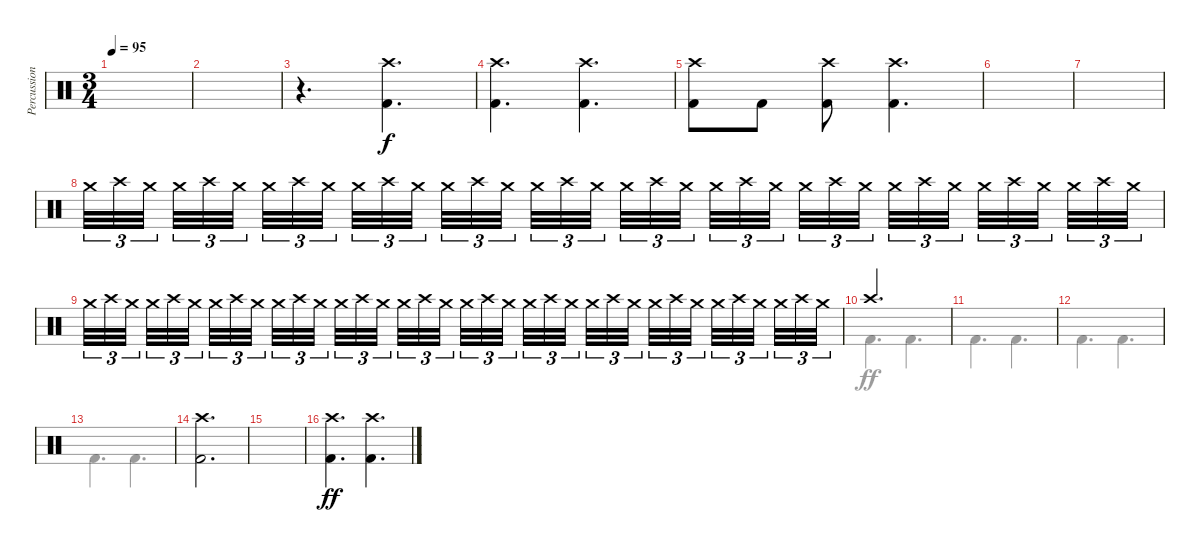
\track ("Percussion" "Percussion") {instrument percussion}
\staff {score}
\articulation defaults
\voice
\ts (3 4)
\tempo 95
\clef neutral
\ks c
|
|
r.4{d} ("Crash high (hit)" "Kick (hit) 2").4{d} |
("Crash high (hit)" "Kick (hit) 2").4{d} ("Crash high (hit)" "Kick (hit) 2").4{d} |
("Crash high (hit)" "Kick (hit) 2").8 "Kick (hit) 2".8 ("Crash high (hit)" "Kick (hit) 2").8 ("Crash high (hit)" "Kick (hit) 2").4{d} |
|
|
"Crash medium (hit)".32{tu (3 2) volume 0} "Crash high (hit)".32{tu (3 2) volume 13} "Crash medium (hit)".32{tu (3 2) beam splitsecondary} "Crash medium (hit)".32{tu (3 2)} "Crash high (hit)".32{tu (3 2)} "Crash medium (hit)".32{tu (3 2) beam splitsecondary} "Crash medium (hit)".32{tu (3 2)} "Crash high (hit)".32{tu (3 2)} "Crash medium (hit)".32{tu (3 2) beam splitsecondary} "Crash medium (hit)".32{tu (3 2)} "Crash high (hit)".32{tu (3 2)} "Crash medium (hit)".32{tu (3 2)} "Crash medium (hit)".32{tu (3 2)} "Crash high (hit)".32{tu (3 2)} "Crash medium (hit)".32{tu (3 2) beam splitsecondary} "Crash medium (hit)".32{tu (3 2)} "Crash high (hit)".32{tu (3 2)} "Crash medium (hit)".32{tu (3 2) beam splitsecondary} "Crash medium (hit)".32{tu (3 2)} "Crash high (hit)".32{tu (3 2)} "Crash medium (hit)".32{tu (3 2) beam splitsecondary} "Crash medium (hit)".32{tu (3 2)} "Crash high (hit)".32{tu (3 2)} "Crash medium (hit)".32{tu (3 2)} "Crash medium (hit)".32{tu (3 2)} "Crash high (hit)".32{tu (3 2)} "Crash medium (hit)".32{tu (3 2) beam splitsecondary} "Crash medium (hit)".32{tu (3 2)} "Crash high (hit)".32{tu (3 2)} "Crash medium (hit)".32{tu (3 2) beam splitsecondary} "Crash medium (hit)".32{tu (3 2)} "Crash high (hit)".32{tu (3 2)} "Crash medium (hit)".32{tu (3 2) beam splitsecondary} "Crash medium (hit)".32{tu (3 2)} "Crash high (hit)".32{tu (3 2)} "Crash medium (hit)".32{tu (3 2)} |
"Crash medium (hit)".32{tu (3 2)} "Crash high (hit)".32{tu (3 2)} "Crash medium (hit)".32{tu (3 2) beam splitsecondary} "Crash medium (hit)".32{tu (3 2)} "Crash high (hit)".32{tu (3 2)} "Crash medium (hit)".32{tu (3 2) beam splitsecondary} "Crash medium (hit)".32{tu (3 2)} "Crash high (hit)".32{tu (3 2)} "Crash medium (hit)".32{tu (3 2) beam splitsecondary} "Crash medium (hit)".32{tu (3 2)} "Crash high (hit)".32{tu (3 2)} "Crash medium (hit)".32{tu (3 2)} "Crash medium (hit)".32{tu (3 2)} "Crash high (hit)".32{tu (3 2)} "Crash medium (hit)".32{tu (3 2) beam splitsecondary} "Crash medium (hit)".32{tu (3 2)} "Crash high (hit)".32{tu (3 2)} "Crash medium (hit)".32{tu (3 2) beam splitsecondary} "Crash medium (hit)".32{tu (3 2)} "Crash high (hit)".32{tu (3 2)} "Crash medium (hit)".32{tu (3 2) beam splitsecondary} "Crash medium (hit)".32{tu (3 2)} "Crash high (hit)".32{tu (3 2)} "Crash medium (hit)".32{tu (3 2)} "Crash medium (hit)".32{tu (3 2)} "Crash high (hit)".32{tu (3 2)} "Crash medium (hit)".32{tu (3 2) beam splitsecondary} "Crash medium (hit)".32{tu (3 2)} "Crash high (hit)".32{tu (3 2)} "Crash medium (hit)".32{tu (3 2) beam splitsecondary} "Crash medium (hit)".32{tu (3 2)} "Crash high (hit)".32{tu (3 2)} "Crash medium (hit)".32{tu (3 2) beam splitsecondary} "Crash medium (hit)".32{tu (3 2)} "Crash high (hit)".32{tu (3 2)} "Crash medium (hit)".32{tu (3 2)} |
"Crash high (hit)".2{d dy f} |
|
|
|
("Crash high (hit)" "Kick (hit) 2").2{d} |
|
("Crash high (hit)" "Kick (hit) 2").4{d dy ff} ("Crash high (hit)" "Kick (hit) 2").4{d}
\voice
\clef neutral
\ottava regular
\simile none
\ks c
|
|
|
|
|
|
|
|
|
"Kick (hit) 2".4{d} "Kick (hit) 2".4{d} |
"Kick (hit) 2".4{d} "Kick (hit) 2".4{d} |
"Kick (hit) 2".4{d} "Kick (hit) 2".4{d} |
"Kick (hit) 2".4{d} "Kick (hit) 2".4{d} |
|
|
